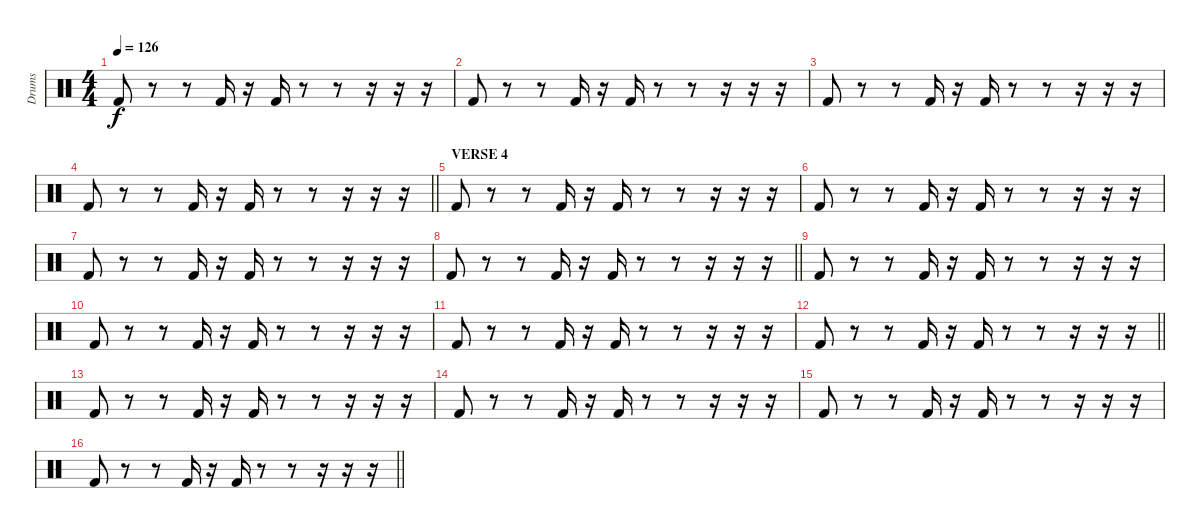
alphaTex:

\track ("Drums" "Drums") {instrument percussion}
\staff {score}
\articulation defaults
\ts (4 4)
\tempo 126
\clef neutral
\ks c "Kick (hit) 2".8{dy f}
r.8 r.8 "Kick (hit) 2".16 r.16 "Kick (hit) 2".16 r.8 r.8 r.16 r.16 r.16 |
"Kick (hit) 2".8 r.8 r.8 "Kick (hit) 2".16 r.16 "Kick (hit) 2".16 r.8 r.8 r.16 r.16 r.16 |
"Kick (hit) 2".8 r.8 r.8 "Kick (hit) 2".16 r.16 "Kick (hit) 2".16 r.8 r.8 r.16 r.16 r.16 |
\barLineRight lightlight "Kick (hit) 2".8
r.8 r.8 "Kick (hit) 2".16 r.16 "Kick (hit) 2".16 r.8 r.8 r.16 r.16 r.16 |
\section ("" "VERSE 4")
"Kick (hit) 2".8 r.8 r.8 "Kick (hit) 2".16 r.16 "Kick (hit) 2".16 r.8 r.8 r.16 r.16 r.16 |
"Kick (hit) 2".8 r.8 r.8 "Kick (hit) 2".16 r.16 "Kick (hit) 2".16 r.8 r.8 r.16 r.16 r.16 |
"Kick (hit) 2".8 r.8 r.8 "Kick (hit) 2".16 r.16 "Kick (hit) 2".16 r.8 r.8 r.16 r.16 r.16 |
\barLineRight lightlight "Kick (hit) 2".8
r.8 r.8 "Kick (hit) 2".16 r.16 "Kick (hit) 2".16 r.8 r.8 r.16 r.16 r.16 |
"Kick (hit) 2".8 r.8 r.8 "Kick (hit) 2".16 r.16 "Kick (hit) 2".16 r.8 r.8 r.16 r.16 r.16 |
"Kick (hit) 2".8 r.8 r.8 "Kick (hit) 2".16 r.16 "Kick (hit) 2".16 r.8 r.8 r.16 r.16 r.16 |
"Kick (hit) 2".8 r.8 r.8 "Kick (hit) 2".16 r.16 "Kick (hit) 2".16 r.8 r.8 r.16 r.16 r.16 |
\barLineRight lightlight "Kick (hit) 2".8
r.8 r.8 "Kick (hit) 2".16 r.16 "Kick (hit) 2".16 r.8 r.8 r.16 r.16 r.16 |
"Kick (hit) 2".8 r.8 r.8 "Kick (hit) 2".16 r.16 "Kick (hit) 2".16 r.8 r.8 r.16 r.16 r.16 |
"Kick (hit) 2".8 r.8 r.8 "Kick (hit) 2".16 r.16 "Kick (hit) 2".16 r.8 r.8 r.16 r.16 r.16 |
"Kick (hit) 2".8 r.8 r.8 "Kick (hit) 2".16 r.16 "Kick (hit) 2".16 r.8 r.8 r.16 r.16 r.16 |
\barLineRight lightlight "Kick (hit) 2".8
r.8 r.8 "Kick (hit) 2".16 r.16 "Kick (hit) 2".16 r.8 r.8 r.16 r.16 r.16
